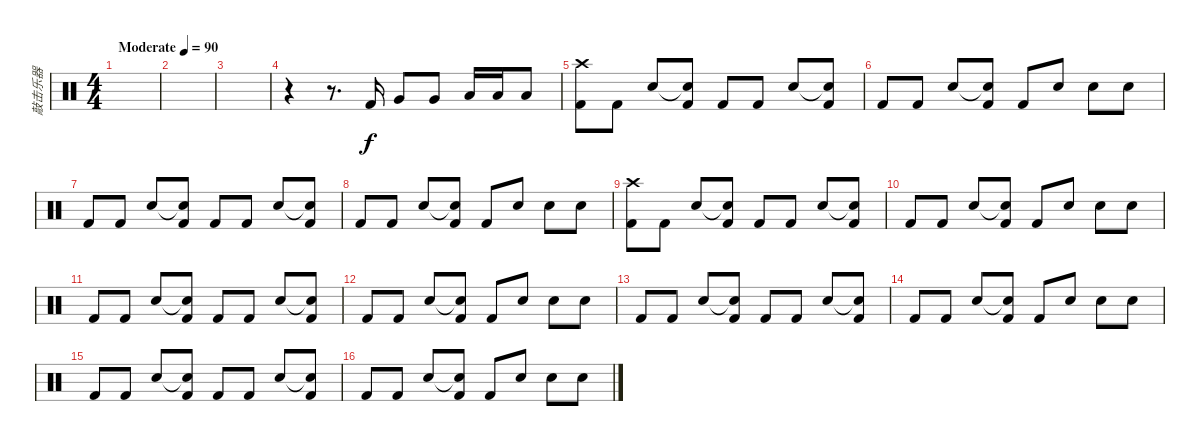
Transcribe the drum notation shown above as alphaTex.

\track ("敲击乐器" "敲击乐器") {instrument percussion}
\staff {score}
\articulation defaults
\ts (4 4)
\tempo (90 "Moderate")
\clef neutral
\ks c
|
|
|
r.4 r.8{d} "Kick (hit) 2".16 "Very Low Tom (hit)".8 "Very Low Tom (hit)".8 "Low Floor Tom (hit)".16 "Low Floor Tom (hit)".16 "Low Floor Tom (hit)".8 |
("Crash high (hit)" "Kick (hit) 2").8 "Kick (hit) 2".8 "Snare (hit) 2".8 ("Snare (hit)"{t} "Kick (hit) 2").8 "Kick (hit) 2".8 "Kick (hit) 2".8 "Snare (hit) 2".8 ("Snare (hit)"{t} "Kick (hit) 2").8 |
"Kick (hit) 2".8 "Kick (hit) 2".8 "Snare (hit) 2".8 ("Snare (hit)"{t} "Kick (hit) 2").8 "Kick (hit) 2".8 "Snare (hit) 2".8 "Snare (hit) 2".8 "Snare (hit) 2".8 |
"Kick (hit) 2".8 "Kick (hit) 2".8 "Snare (hit) 2".8 ("Snare (hit)"{t} "Kick (hit) 2").8 "Kick (hit) 2".8 "Kick (hit) 2".8 "Snare (hit) 2".8 ("Snare (hit)"{t} "Kick (hit) 2").8 |
"Kick (hit) 2".8 "Kick (hit) 2".8 "Snare (hit) 2".8 ("Snare (hit)"{t} "Kick (hit) 2").8 "Kick (hit) 2".8 "Snare (hit) 2".8 "Snare (hit) 2".8 "Snare (hit) 2".8 |
("Crash high (hit)" "Kick (hit) 2").8 "Kick (hit) 2".8 "Snare (hit) 2".8 ("Snare (hit)"{t} "Kick (hit) 2").8 "Kick (hit) 2".8 "Kick (hit) 2".8 "Snare (hit) 2".8 ("Snare (hit)"{t} "Kick (hit) 2").8 |
"Kick (hit) 2".8 "Kick (hit) 2".8 "Snare (hit) 2".8 ("Snare (hit)"{t} "Kick (hit) 2").8 "Kick (hit) 2".8 "Snare (hit) 2".8 "Snare (hit) 2".8 "Snare (hit) 2".8 |
"Kick (hit) 2".8 "Kick (hit) 2".8 "Snare (hit) 2".8 ("Snare (hit)"{t} "Kick (hit) 2").8 "Kick (hit) 2".8 "Kick (hit) 2".8 "Snare (hit) 2".8 ("Snare (hit)"{t} "Kick (hit) 2").8 |
"Kick (hit) 2".8 "Kick (hit) 2".8 "Snare (hit) 2".8 ("Snare (hit)"{t} "Kick (hit) 2").8 "Kick (hit) 2".8 "Snare (hit) 2".8 "Snare (hit) 2".8 "Snare (hit) 2".8 |
"Kick (hit) 2".8 "Kick (hit) 2".8 "Snare (hit) 2".8 ("Snare (hit)"{t} "Kick (hit) 2").8 "Kick (hit) 2".8 "Kick (hit) 2".8 "Snare (hit) 2".8 ("Snare (hit)"{t} "Kick (hit) 2").8 |
"Kick (hit) 2".8 "Kick (hit) 2".8 "Snare (hit) 2".8 ("Snare (hit)"{t} "Kick (hit) 2").8 "Kick (hit) 2".8 "Snare (hit) 2".8 "Snare (hit) 2".8 "Snare (hit) 2".8 |
"Kick (hit) 2".8 "Kick (hit) 2".8 "Snare (hit) 2".8 ("Snare (hit)"{t} "Kick (hit) 2").8 "Kick (hit) 2".8 "Kick (hit) 2".8 "Snare (hit) 2".8 ("Snare (hit)"{t} "Kick (hit) 2").8 |
"Kick (hit) 2".8 "Kick (hit) 2".8 "Snare (hit) 2".8 ("Snare (hit)"{t} "Kick (hit) 2").8 "Kick (hit) 2".8 "Snare (hit) 2".8 "Snare (hit) 2".8 "Snare (hit) 2".8
